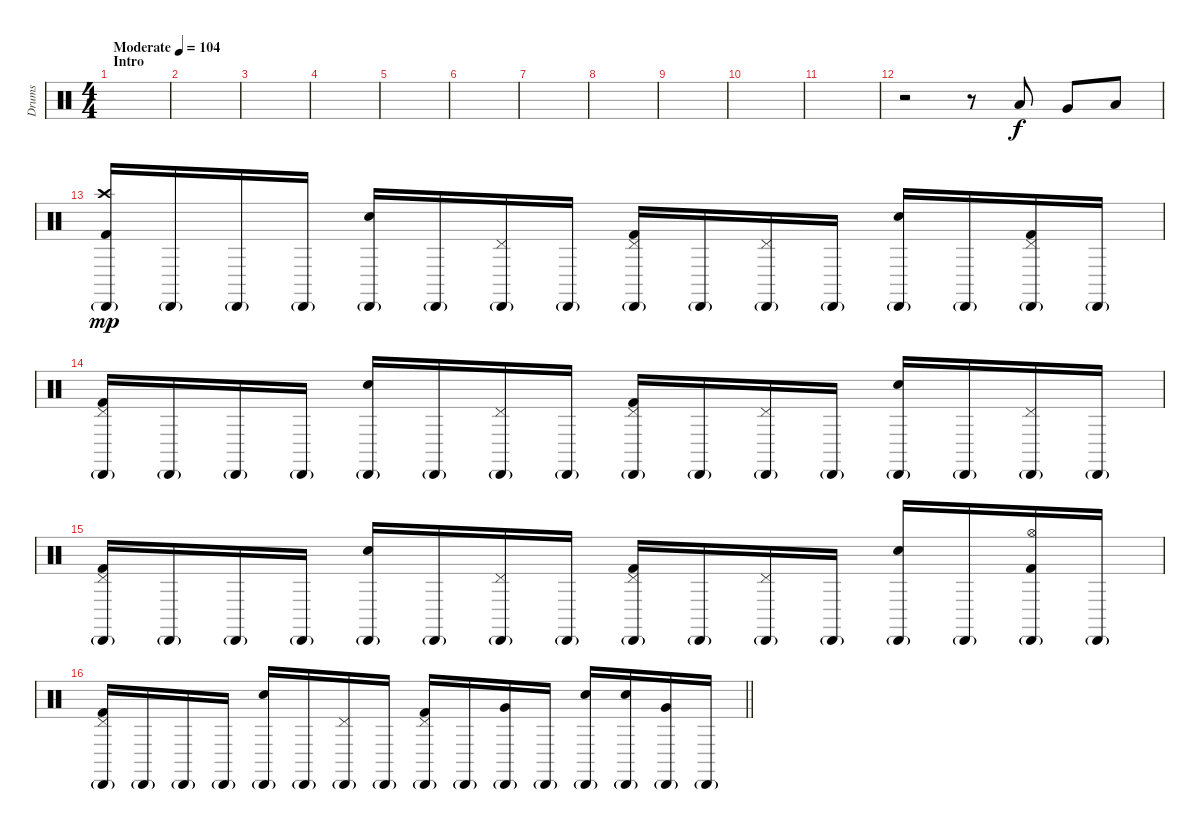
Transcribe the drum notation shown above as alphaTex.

\track ("Drums" "Drums") {instrument percussion}
\staff {score}
\articulation defaults
\ts (4 4)
\section ("" "Intro")
\tempo (104 "Moderate")
\clef neutral
\ks c
|
|
|
|
|
|
|
|
|
|
|
r.2 r.8 "Low Tom (hit)".8 "Very Low Tom (hit)".8 "Low Floor Tom (hit)".8 |
("Crash high (hit)" "Cabasa (hit)"{g} "Kick (hit) 2").16{dy mp} "Cabasa (hit)"{g}.16 "Cabasa (hit)"{g}.16 "Cabasa (hit)"{g}.16 ("Snare (hit) 2" "Cabasa (hit)"{g}).16 "Cabasa (hit)"{g}.16 ("Pedal Hi-Hat (hit)" "Cabasa (hit)"{g}).16 "Cabasa (hit)"{g}.16 ("Pedal Hi-Hat (hit)" "Cabasa (hit)"{g} "Kick (hit) 2").16 "Cabasa (hit)"{g}.16 ("Pedal Hi-Hat (hit)" "Cabasa (hit)"{g}).16 "Cabasa (hit)"{g}.16 ("Snare (hit) 2" "Cabasa (hit)"{g}).16 "Cabasa (hit)"{g}.16 ("Pedal Hi-Hat (hit)" "Cabasa (hit)"{g} "Kick (hit) 2").16 "Cabasa (hit)"{g}.16 |
("Pedal Hi-Hat (hit)" "Cabasa (hit)"{g} "Kick (hit) 2").16 "Cabasa (hit)"{g}.16 "Cabasa (hit)"{g}.16 "Cabasa (hit)"{g}.16 ("Snare (hit) 2" "Cabasa (hit)"{g}).16 "Cabasa (hit)"{g}.16 ("Pedal Hi-Hat (hit)" "Cabasa (hit)"{g}).16 "Cabasa (hit)"{g}.16 ("Pedal Hi-Hat (hit)" "Cabasa (hit)"{g} "Kick (hit) 2").16 "Cabasa (hit)"{g}.16 ("Pedal Hi-Hat (hit)" "Cabasa (hit)"{g}).16 "Cabasa (hit)"{g}.16 ("Snare (hit) 2" "Cabasa (hit)"{g}).16 "Cabasa (hit)"{g}.16 ("Pedal Hi-Hat (hit)" "Cabasa (hit)"{g}).16 "Cabasa (hit)"{g}.16 |
("Pedal Hi-Hat (hit)" "Cabasa (hit)"{g} "Kick (hit) 2").16 "Cabasa (hit)"{g}.16 "Cabasa (hit)"{g}.16 "Cabasa (hit)"{g}.16 ("Snare (hit) 2" "Cabasa (hit)"{g}).16 "Cabasa (hit)"{g}.16 ("Pedal Hi-Hat (hit)" "Cabasa (hit)"{g}).16 "Cabasa (hit)"{g}.16 ("Pedal Hi-Hat (hit)" "Cabasa (hit)"{g} "Kick (hit) 2").16 "Cabasa (hit)"{g}.16 ("Pedal Hi-Hat (hit)" "Cabasa (hit)"{g}).16 "Cabasa (hit)"{g}.16 ("Snare (hit) 2" "Cabasa (hit)"{g}).16 "Cabasa (hit)"{g}.16 ("Hi-Hat (open)" "Cabasa (hit)"{g} "Kick (hit) 2").16 "Cabasa (hit)"{g}.16 |
\barLineRight lightlight
("Pedal Hi-Hat (hit)" "Cabasa (hit)"{g} "Kick (hit) 2").16 "Cabasa (hit)"{g}.16 "Cabasa (hit)"{g}.16 "Cabasa (hit)"{g}.16 ("Snare (hit) 2" "Cabasa (hit)"{g}).16 "Cabasa (hit)"{g}.16 ("Pedal Hi-Hat (hit)" "Cabasa (hit)"{g}).16 "Cabasa (hit)"{g}.16 ("Pedal Hi-Hat (hit)" "Cabasa (hit)"{g} "Kick (hit) 2").16 "Cabasa (hit)"{g}.16 ("Very Low Tom (hit)" "Cabasa (hit)"{g}).16 "Cabasa (hit)"{g}.16 ("Snare (hit) 2" "Cabasa (hit)"{g}).16 ("Snare (hit) 2" "Cabasa (hit)"{g}).16 ("Very Low Tom (hit)" "Cabasa (hit)"{g}).16 "Cabasa (hit)"{g}.16
